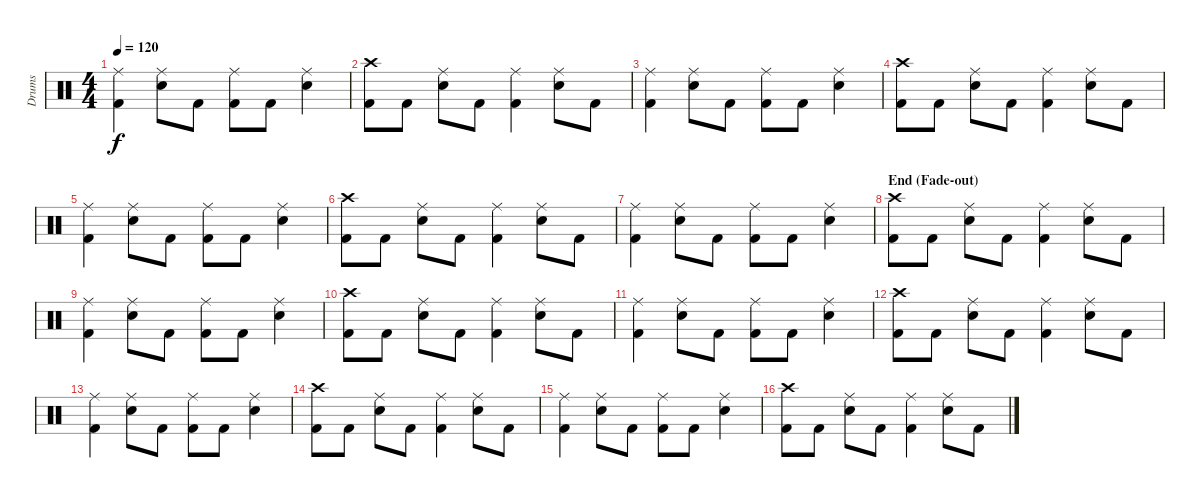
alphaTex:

\track ("Drums" "Drums") {instrument percussion}
\staff {score}
\articulation defaults
\ts (4 4)
\tempo 120
\clef neutral
\ks c
("Ride (middle)" "Kick (hit) 2").4{dy f} ("Ride (middle)" "Snare (hit) 2").8 "Kick (hit) 2".8 ("Ride (middle)" "Kick (hit) 2").8 "Kick (hit) 2".8 ("Ride (middle)" "Snare (hit) 2").4 |
("Crash high (hit)" "Kick (hit) 2").8 "Kick (hit) 2".8 ("Ride (middle)" "Snare (hit) 2").8 "Kick (hit) 2".8 ("Ride (middle)" "Kick (hit) 2").4 ("Ride (middle)" "Snare (hit) 2").8 "Kick (hit) 2".8 |
("Ride (middle)" "Kick (hit) 2").4 ("Ride (middle)" "Snare (hit) 2").8 "Kick (hit) 2".8 ("Ride (middle)" "Kick (hit) 2").8 "Kick (hit) 2".8 ("Ride (middle)" "Snare (hit) 2").4 |
("Crash high (hit)" "Kick (hit) 2").8 "Kick (hit) 2".8 ("Ride (middle)" "Snare (hit) 2").8 "Kick (hit) 2".8 ("Ride (middle)" "Kick (hit) 2").4 ("Ride (middle)" "Snare (hit) 2").8 "Kick (hit) 2".8 |
("Ride (middle)" "Kick (hit) 2").4 ("Ride (middle)" "Snare (hit) 2").8 "Kick (hit) 2".8 ("Ride (middle)" "Kick (hit) 2").8 "Kick (hit) 2".8 ("Ride (middle)" "Snare (hit) 2").4 |
("Crash high (hit)" "Kick (hit) 2").8 "Kick (hit) 2".8 ("Ride (middle)" "Snare (hit) 2").8 "Kick (hit) 2".8 ("Ride (middle)" "Kick (hit) 2").4 ("Ride (middle)" "Snare (hit) 2").8 "Kick (hit) 2".8 |
("Ride (middle)" "Kick (hit) 2").4 ("Ride (middle)" "Snare (hit) 2").8 "Kick (hit) 2".8 ("Ride (middle)" "Kick (hit) 2").8 "Kick (hit) 2".8 ("Ride (middle)" "Snare (hit) 2").4 |
\section ("" "End (Fade-out)")
("Crash high (hit)" "Kick (hit) 2").8 "Kick (hit) 2".8 ("Ride (middle)" "Snare (hit) 2").8 "Kick (hit) 2".8 ("Ride (middle)" "Kick (hit) 2").4 ("Ride (middle)" "Snare (hit) 2").8 "Kick (hit) 2".8 |
("Ride (middle)" "Kick (hit) 2").4 ("Ride (middle)" "Snare (hit) 2").8 "Kick (hit) 2".8 ("Ride (middle)" "Kick (hit) 2").8 "Kick (hit) 2".8 ("Ride (middle)" "Snare (hit) 2").4 |
("Crash high (hit)" "Kick (hit) 2").8 "Kick (hit) 2".8 ("Ride (middle)" "Snare (hit) 2").8 "Kick (hit) 2".8 ("Ride (middle)" "Kick (hit) 2").4 ("Ride (middle)" "Snare (hit) 2").8 "Kick (hit) 2".8 |
("Ride (middle)" "Kick (hit) 2").4 ("Ride (middle)" "Snare (hit) 2").8 "Kick (hit) 2".8 ("Ride (middle)" "Kick (hit) 2").8 "Kick (hit) 2".8 ("Ride (middle)" "Snare (hit) 2").4 |
("Crash high (hit)" "Kick (hit) 2").8 "Kick (hit) 2".8 ("Ride (middle)" "Snare (hit) 2").8 "Kick (hit) 2".8 ("Ride (middle)" "Kick (hit) 2").4 ("Ride (middle)" "Snare (hit) 2").8 "Kick (hit) 2".8 |
("Ride (middle)" "Kick (hit) 2").4 ("Ride (middle)" "Snare (hit) 2").8 "Kick (hit) 2".8 ("Ride (middle)" "Kick (hit) 2").8 "Kick (hit) 2".8 ("Ride (middle)" "Snare (hit) 2").4 |
("Crash high (hit)" "Kick (hit) 2").8 "Kick (hit) 2".8 ("Ride (middle)" "Snare (hit) 2").8 "Kick (hit) 2".8 ("Ride (middle)" "Kick (hit) 2").4 ("Ride (middle)" "Snare (hit) 2").8 "Kick (hit) 2".8 |
("Ride (middle)" "Kick (hit) 2").4 ("Ride (middle)" "Snare (hit) 2").8 "Kick (hit) 2".8 ("Ride (middle)" "Kick (hit) 2").8 "Kick (hit) 2".8 ("Ride (middle)" "Snare (hit) 2").4 |
("Crash high (hit)" "Kick (hit) 2").8 "Kick (hit) 2".8 ("Ride (middle)" "Snare (hit) 2").8 "Kick (hit) 2".8 ("Ride (middle)" "Kick (hit) 2").4 ("Ride (middle)" "Snare (hit) 2").8 "Kick (hit) 2".8
